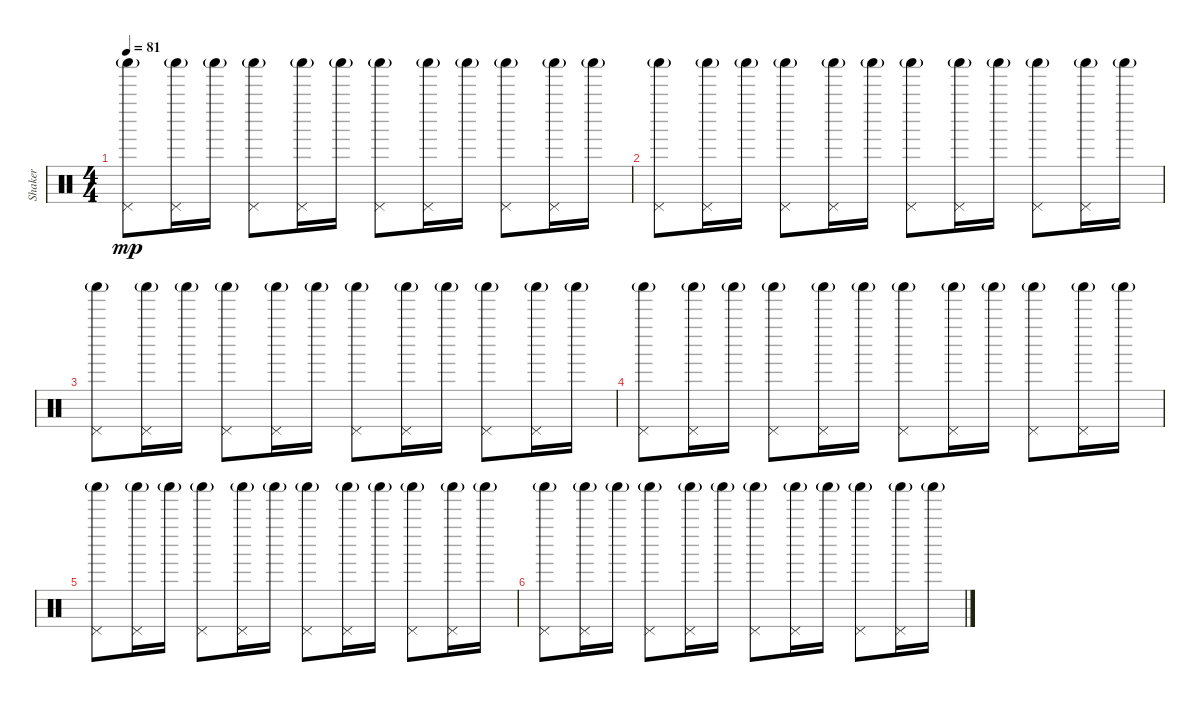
\track ("Shaker" "Shaker") {instrument percussion}
\staff {score}
\articulation defaults
\ts (4 4)
\tempo 81
\clef neutral
\ks c
("Pedal Hi-Hat (hit)" "Shaker (hit)"{g}).8{dy mp volume 8} ("Pedal Hi-Hat (hit)" "Shaker (hit)"{g}).16 "Shaker (hit)"{g}.16 ("Pedal Hi-Hat (hit)" "Shaker (hit)"{g}).8 ("Pedal Hi-Hat (hit)" "Shaker (hit)"{g}).16 "Shaker (hit)"{g}.16 ("Pedal Hi-Hat (hit)" "Shaker (hit)"{g}).8 ("Pedal Hi-Hat (hit)" "Shaker (hit)"{g}).16 "Shaker (hit)"{g}.16 ("Pedal Hi-Hat (hit)" "Shaker (hit)"{g}).8 ("Pedal Hi-Hat (hit)" "Shaker (hit)"{g}).16 "Shaker (hit)"{g}.16 |
("Pedal Hi-Hat (hit)" "Shaker (hit)"{g}).8 ("Pedal Hi-Hat (hit)" "Shaker (hit)"{g}).16 "Shaker (hit)"{g}.16 ("Pedal Hi-Hat (hit)" "Shaker (hit)"{g}).8 ("Pedal Hi-Hat (hit)" "Shaker (hit)"{g}).16 "Shaker (hit)"{g}.16 ("Pedal Hi-Hat (hit)" "Shaker (hit)"{g}).8 ("Pedal Hi-Hat (hit)" "Shaker (hit)"{g}).16 "Shaker (hit)"{g}.16 ("Pedal Hi-Hat (hit)" "Shaker (hit)"{g}).8 ("Pedal Hi-Hat (hit)" "Shaker (hit)"{g}).16 "Shaker (hit)"{g}.16 |
("Pedal Hi-Hat (hit)" "Shaker (hit)"{g}).8{volume 4} ("Pedal Hi-Hat (hit)" "Shaker (hit)"{g}).16 "Shaker (hit)"{g}.16 ("Pedal Hi-Hat (hit)" "Shaker (hit)"{g}).8 ("Pedal Hi-Hat (hit)" "Shaker (hit)"{g}).16 "Shaker (hit)"{g}.16 ("Pedal Hi-Hat (hit)" "Shaker (hit)"{g}).8 ("Pedal Hi-Hat (hit)" "Shaker (hit)"{g}).16 "Shaker (hit)"{g}.16 ("Pedal Hi-Hat (hit)" "Shaker (hit)"{g}).8 ("Pedal Hi-Hat (hit)" "Shaker (hit)"{g}).16 "Shaker (hit)"{g}.16 |
("Pedal Hi-Hat (hit)" "Shaker (hit)"{g}).8 ("Pedal Hi-Hat (hit)" "Shaker (hit)"{g}).16 "Shaker (hit)"{g}.16 ("Pedal Hi-Hat (hit)" "Shaker (hit)"{g}).8 ("Pedal Hi-Hat (hit)" "Shaker (hit)"{g}).16 "Shaker (hit)"{g}.16 ("Pedal Hi-Hat (hit)" "Shaker (hit)"{g}).8 ("Pedal Hi-Hat (hit)" "Shaker (hit)"{g}).16 "Shaker (hit)"{g}.16 ("Pedal Hi-Hat (hit)" "Shaker (hit)"{g}).8 ("Pedal Hi-Hat (hit)" "Shaker (hit)"{g}).16 "Shaker (hit)"{g}.16 |
("Pedal Hi-Hat (hit)" "Shaker (hit)"{g}).8{volume 0} ("Pedal Hi-Hat (hit)" "Shaker (hit)"{g}).16 "Shaker (hit)"{g}.16 ("Pedal Hi-Hat (hit)" "Shaker (hit)"{g}).8 ("Pedal Hi-Hat (hit)" "Shaker (hit)"{g}).16 "Shaker (hit)"{g}.16 ("Pedal Hi-Hat (hit)" "Shaker (hit)"{g}).8 ("Pedal Hi-Hat (hit)" "Shaker (hit)"{g}).16 "Shaker (hit)"{g}.16 ("Pedal Hi-Hat (hit)" "Shaker (hit)"{g}).8 ("Pedal Hi-Hat (hit)" "Shaker (hit)"{g}).16 "Shaker (hit)"{g}.16 |
("Pedal Hi-Hat (hit)" "Shaker (hit)"{g}).8 ("Pedal Hi-Hat (hit)" "Shaker (hit)"{g}).16 "Shaker (hit)"{g}.16 ("Pedal Hi-Hat (hit)" "Shaker (hit)"{g}).8 ("Pedal Hi-Hat (hit)" "Shaker (hit)"{g}).16 "Shaker (hit)"{g}.16 ("Pedal Hi-Hat (hit)" "Shaker (hit)"{g}).8 ("Pedal Hi-Hat (hit)" "Shaker (hit)"{g}).16 "Shaker (hit)"{g}.16 ("Pedal Hi-Hat (hit)" "Shaker (hit)"{g}).8 ("Pedal Hi-Hat (hit)" "Shaker (hit)"{g}).16 "Shaker (hit)"{g}.16
